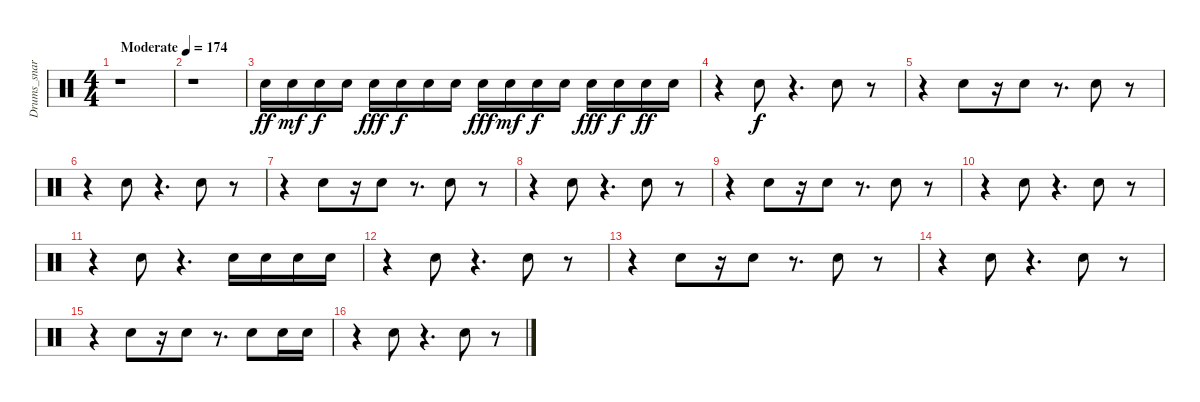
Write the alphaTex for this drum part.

\track ("Drums_snare&tom" "Drums_snar") {instrument percussion}
\staff {score}
\articulation defaults
\ts (4 4)
\tempo (174 "Moderate")
\clef neutral
\ks c
r.1{dy ff} |
r.1 |
"Electric Snare (hit)".16 "Electric Snare (hit)".16{dy mf} "Electric Snare (hit)".16{dy f} "Electric Snare (hit)".16 "Electric Snare (hit)".16{dy fff} "Electric Snare (hit)".16{dy f} "Electric Snare (hit)".16 "Electric Snare (hit)".16 "Electric Snare (hit)".16{dy fff} "Electric Snare (hit)".16{dy mf} "Electric Snare (hit)".16{dy f} "Electric Snare (hit)".16 "Electric Snare (hit)".16{dy fff} "Electric Snare (hit)".16{dy f} "Electric Snare (hit)".16{dy ff} "Electric Snare (hit)".16 |
r.4 "Electric Snare (hit)".8{dy f} r.4{d} "Electric Snare (hit)".8 r.8 |
r.4 "Electric Snare (hit)".8 r.16 "Electric Snare (hit)".8 r.8{d} "Electric Snare (hit)".8 r.8 |
r.4 "Electric Snare (hit)".8 r.4{d} "Electric Snare (hit)".8 r.8 |
r.4 "Electric Snare (hit)".8 r.16 "Electric Snare (hit)".8 r.8{d} "Electric Snare (hit)".8 r.8 |
r.4 "Electric Snare (hit)".8 r.4{d} "Electric Snare (hit)".8 r.8 |
r.4 "Electric Snare (hit)".8 r.16 "Electric Snare (hit)".8 r.8{d} "Electric Snare (hit)".8 r.8 |
r.4 "Electric Snare (hit)".8 r.4{d} "Electric Snare (hit)".8 r.8 |
r.4 "Electric Snare (hit)".8 r.4{d} "Electric Snare (hit)".16 "Electric Snare (hit)".16 "Electric Snare (hit)".16 "Electric Snare (hit)".16 |
r.4 "Electric Snare (hit)".8 r.4{d} "Electric Snare (hit)".8 r.8 |
r.4 "Electric Snare (hit)".8 r.16 "Electric Snare (hit)".8 r.8{d} "Electric Snare (hit)".8 r.8 |
r.4 "Electric Snare (hit)".8 r.4{d} "Electric Snare (hit)".8 r.8 |
r.4 "Electric Snare (hit)".8 r.16 "Electric Snare (hit)".8 r.8{d} "Electric Snare (hit)".8 "Electric Snare (hit)".16 "Electric Snare (hit)".16 |
r.4 "Electric Snare (hit)".8 r.4{d} "Electric Snare (hit)".8 r.8
